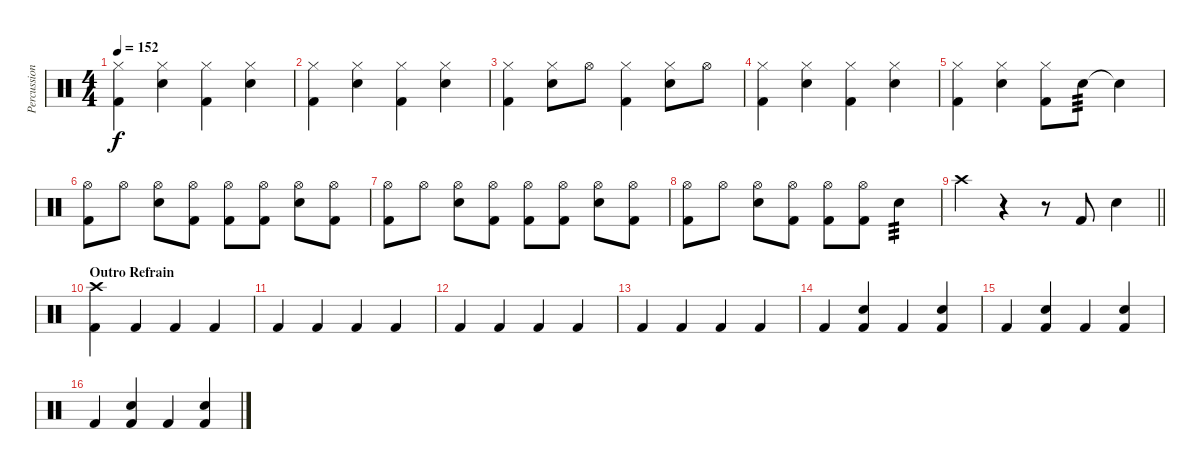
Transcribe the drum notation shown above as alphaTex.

\track ("Percussion" "Percussion") {instrument percussion}
\staff {score}
\articulation defaults
\ts (4 4)
\tempo 152
\clef neutral
\ks c
("Kick (hit) 2" "Hi-Hat (closed)").4{dy f} ("Snare (hit) 2" "Hi-Hat (closed)").4 ("Kick (hit) 2" "Hi-Hat (closed)").4 ("Snare (hit) 2" "Hi-Hat (closed)").4 |
("Kick (hit) 2" "Hi-Hat (closed)").4 ("Snare (hit) 2" "Hi-Hat (closed)").4 ("Kick (hit) 2" "Hi-Hat (closed)").4 ("Snare (hit) 2" "Hi-Hat (closed)").4 |
("Kick (hit) 2" "Hi-Hat (closed)").4 ("Snare (hit) 2" "Hi-Hat (closed)").8 "Hi-Hat (open)".8 ("Kick (hit) 2" "Hi-Hat (closed)").4 ("Snare (hit) 2" "Hi-Hat (closed)").8 "Hi-Hat (open)".8 |
("Kick (hit) 2" "Hi-Hat (closed)").4 ("Snare (hit) 2" "Hi-Hat (closed)").4 ("Kick (hit) 2" "Hi-Hat (closed)").4 ("Snare (hit) 2" "Hi-Hat (closed)").4 |
("Kick (hit) 2" "Hi-Hat (closed)").4 ("Snare (hit) 2" "Hi-Hat (closed)").4 ("Kick (hit) 2" "Hi-Hat (closed)").8 "Snare (hit) 2".8{tp 3} "Snare (hit)"{t}.4 |
("Kick (hit) 2" "Hi-Hat (open)").8 "Hi-Hat (open)".8 ("Snare (hit) 2" "Hi-Hat (open)").8 ("Kick (hit) 2" "Hi-Hat (open)").8 ("Kick (hit) 2" "Hi-Hat (open)").8 ("Kick (hit) 2" "Hi-Hat (open)").8 ("Snare (hit) 2" "Hi-Hat (open)").8 ("Kick (hit) 2" "Hi-Hat (open)").8 |
("Kick (hit) 2" "Hi-Hat (open)").8 "Hi-Hat (open)".8 ("Snare (hit) 2" "Hi-Hat (open)").8 ("Kick (hit) 2" "Hi-Hat (open)").8 ("Kick (hit) 2" "Hi-Hat (open)").8 ("Kick (hit) 2" "Hi-Hat (open)").8 ("Snare (hit) 2" "Hi-Hat (open)").8 ("Kick (hit) 2" "Hi-Hat (open)").8 |
("Kick (hit) 2" "Hi-Hat (open)").8 "Hi-Hat (open)".8 ("Snare (hit) 2" "Hi-Hat (open)").8 ("Kick (hit) 2" "Hi-Hat (open)").8 ("Kick (hit) 2" "Hi-Hat (open)").8 ("Kick (hit) 2" "Hi-Hat (open)").8 "Snare (hit) 2".4{tp 3} |
\barLineRight lightlight "Crash high (hit)".4
r.4 r.8 "Kick (hit) 2".8 "Snare (hit) 2".4 |
\section ("" "Outro Refrain")
("Crash high (hit)" "Kick (hit) 2").4 "Kick (hit) 2".4 "Kick (hit) 2".4 "Kick (hit) 2".4 |
"Kick (hit) 2".4 "Kick (hit) 2".4 "Kick (hit) 2".4 "Kick (hit) 2".4 |
"Kick (hit) 2".4 "Kick (hit) 2".4 "Kick (hit) 2".4 "Kick (hit) 2".4 |
"Kick (hit) 2".4 "Kick (hit) 2".4 "Kick (hit) 2".4 "Kick (hit) 2".4 |
"Kick (hit) 2".4 ("Snare (hit) 2" "Kick (hit) 2").4 "Kick (hit) 2".4 ("Snare (hit) 2" "Kick (hit) 2").4 |
"Kick (hit) 2".4 ("Snare (hit) 2" "Kick (hit) 2").4 "Kick (hit) 2".4 ("Snare (hit) 2" "Kick (hit) 2").4 |
"Kick (hit) 2".4 ("Snare (hit) 2" "Kick (hit) 2").4 "Kick (hit) 2".4 ("Snare (hit) 2" "Kick (hit) 2").4
